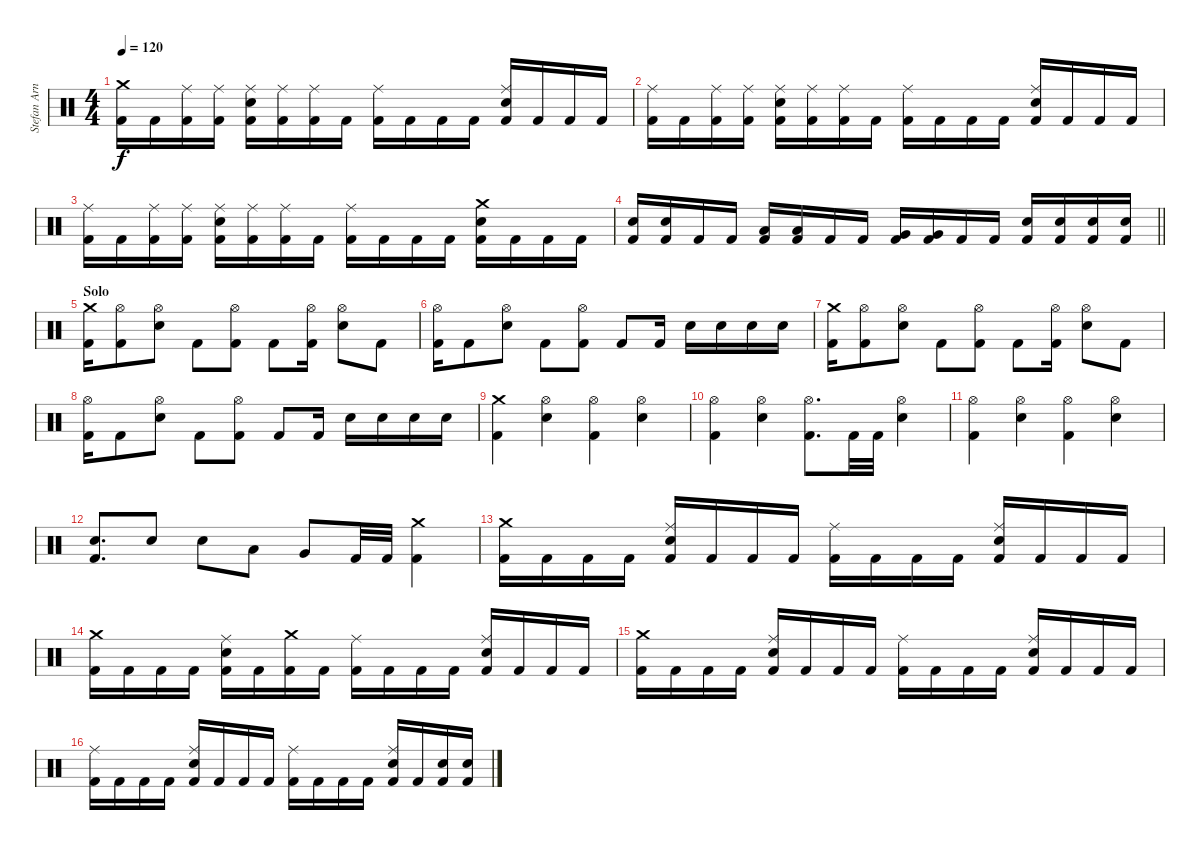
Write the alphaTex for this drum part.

\track ("Stefan Arnold" "Stefan Arn") {instrument percussion}
\staff {score}
\articulation defaults
\ts (4 4)
\tempo 120
\clef neutral
\ks c
("Crash medium (hit)" "Kick (hit) 2").16{dy f} "Kick (hit) 2".16 ("Ride (middle)" "Kick (hit) 2").16 ("Ride (middle)" "Kick (hit) 2").16 ("Ride (middle)" "Electric Snare (hit)" "Kick (hit) 2").16 ("Ride (middle)" "Kick (hit) 2").16 ("Ride (middle)" "Kick (hit) 2").16 "Kick (hit) 2".16 ("Ride (middle)" "Kick (hit) 2").16 "Kick (hit) 2".16 "Kick (hit) 2".16 "Kick (hit) 2".16 ("Ride (middle)" "Electric Snare (hit)" "Kick (hit) 2").16 "Kick (hit) 2".16 "Kick (hit) 2".16 "Kick (hit) 2".16 |
("Ride (middle)" "Kick (hit) 2").16 "Kick (hit) 2".16 ("Ride (middle)" "Kick (hit) 2").16 ("Ride (middle)" "Kick (hit) 2").16 ("Ride (middle)" "Electric Snare (hit)" "Kick (hit) 2").16 ("Ride (middle)" "Kick (hit) 2").16 ("Ride (middle)" "Kick (hit) 2").16 "Kick (hit) 2".16 ("Ride (middle)" "Kick (hit) 2").16 "Kick (hit) 2".16 "Kick (hit) 2".16 "Kick (hit) 2".16 ("Ride (middle)" "Electric Snare (hit)" "Kick (hit) 2").16 "Kick (hit) 2".16 "Kick (hit) 2".16 "Kick (hit) 2".16 |
("Ride (middle)" "Kick (hit) 2").16 "Kick (hit) 2".16 ("Ride (middle)" "Kick (hit) 2").16 ("Ride (middle)" "Kick (hit) 2").16 ("Ride (middle)" "Electric Snare (hit)" "Kick (hit) 2").16 ("Ride (middle)" "Kick (hit) 2").16 ("Ride (middle)" "Kick (hit) 2").16 "Kick (hit) 2".16 ("Ride (middle)" "Kick (hit) 2").16 "Kick (hit) 2".16 "Kick (hit) 2".16 "Kick (hit) 2".16 ("Crash medium (hit)" "Electric Snare (hit)" "Kick (hit) 2").16 "Kick (hit) 2".16 "Kick (hit) 2".16 "Kick (hit) 2".16 |
\barLineRight lightlight
("Electric Snare (hit)" "Kick (hit) 2").16 ("Electric Snare (hit)" "Kick (hit) 2").16 "Kick (hit) 2".16 "Kick (hit) 2".16 ("Low Tom (hit)" "Kick (hit) 2").16 ("Low Tom (hit)" "Kick (hit) 2").16 "Kick (hit) 2".16 "Kick (hit) 2".16 ("Very Low Tom (hit)" "Kick (hit) 2").16 ("Very Low Tom (hit)" "Kick (hit) 2").16 "Kick (hit) 2".16 "Kick (hit) 2".16 ("Electric Snare (hit)" "Kick (hit) 2").16 ("Electric Snare (hit)" "Kick (hit) 2").16 ("Electric Snare (hit)" "Kick (hit) 2").16 ("Electric Snare (hit)" "Kick (hit) 2").16 |
\section ("" "Solo")
("Crash medium (hit)" "Kick (hit) 2").16 ("Hi-Hat (open)" "Kick (hit) 2").8 ("Hi-Hat (open)" "Electric Snare (hit)").8 "Kick (hit) 2".8 ("Hi-Hat (open)" "Kick (hit) 2").8 "Kick (hit) 2".8 ("Hi-Hat (open)" "Kick (hit) 2").16 ("Hi-Hat (open)" "Electric Snare (hit)").8 "Kick (hit) 2".8 |
("Hi-Hat (open)" "Kick (hit) 2").16 "Kick (hit) 2".8 ("Hi-Hat (open)" "Electric Snare (hit)").8 "Kick (hit) 2".8 ("Hi-Hat (open)" "Kick (hit) 2").8 "Kick (hit) 2".8 "Kick (hit) 2".16 "Electric Snare (hit)".16 "Electric Snare (hit)".16 "Electric Snare (hit)".16 "Electric Snare (hit)".16 |
("Crash medium (hit)" "Kick (hit) 2").16 ("Hi-Hat (open)" "Kick (hit) 2").8 ("Hi-Hat (open)" "Electric Snare (hit)").8 "Kick (hit) 2".8 ("Hi-Hat (open)" "Kick (hit) 2").8 "Kick (hit) 2".8 ("Hi-Hat (open)" "Kick (hit) 2").16 ("Hi-Hat (open)" "Electric Snare (hit)").8 "Kick (hit) 2".8 |
("Hi-Hat (open)" "Kick (hit) 2").16 "Kick (hit) 2".8 ("Hi-Hat (open)" "Electric Snare (hit)").8 "Kick (hit) 2".8 ("Hi-Hat (open)" "Kick (hit) 2").8 "Kick (hit) 2".8 "Kick (hit) 2".16 "Electric Snare (hit)".16 "Electric Snare (hit)".16 "Electric Snare (hit)".16 "Electric Snare (hit)".16 |
("Crash medium (hit)" "Kick (hit) 2").4 ("Hi-Hat (open)" "Electric Snare (hit)").4 ("Hi-Hat (open)" "Kick (hit) 2").4 ("Hi-Hat (open)" "Electric Snare (hit)").4 |
("Hi-Hat (open)" "Kick (hit) 2").4 ("Hi-Hat (open)" "Electric Snare (hit)").4 ("Hi-Hat (open)" "Kick (hit) 2").8{d} "Kick (hit) 2".32 "Kick (hit) 2".32 ("Hi-Hat (open)" "Electric Snare (hit)").4 |
("Hi-Hat (open)" "Kick (hit) 2").4 ("Hi-Hat (open)" "Electric Snare (hit)").4 ("Hi-Hat (open)" "Kick (hit) 2").4 ("Hi-Hat (open)" "Electric Snare (hit)").4 |
("Electric Snare (hit)" "Kick (hit) 2").8{d} "Electric Snare (hit)".8 "Electric Snare (hit)".8 "Low Tom (hit)".8 "Very Low Tom (hit)".8 "Kick (hit) 2".32 "Kick (hit) 2".32 ("Crash medium (hit)" "Kick (hit) 2").4 |
("Crash medium (hit)" "Kick (hit) 2").16 "Kick (hit) 2".16 "Kick (hit) 2".16 "Kick (hit) 2".16 ("Ride (middle)" "Electric Snare (hit)" "Kick (hit) 2").16 "Kick (hit) 2".16 "Kick (hit) 2".16 "Kick (hit) 2".16 ("Ride (middle)" "Kick (hit) 2").16 "Kick (hit) 2".16 "Kick (hit) 2".16 "Kick (hit) 2".16 ("Ride (middle)" "Electric Snare (hit)" "Kick (hit) 2").16 "Kick (hit) 2".16 "Kick (hit) 2".16 "Kick (hit) 2".16 |
("Crash medium (hit)" "Kick (hit) 2").16 "Kick (hit) 2".16 "Kick (hit) 2".16 "Kick (hit) 2".16 ("Ride (middle)" "Electric Snare (hit)" "Kick (hit) 2").16 "Kick (hit) 2".16 ("Crash medium (hit)" "Kick (hit) 2").16 "Kick (hit) 2".16 ("Ride (middle)" "Kick (hit) 2").16 "Kick (hit) 2".16 "Kick (hit) 2".16 "Kick (hit) 2".16 ("Ride (middle)" "Electric Snare (hit)" "Kick (hit) 2").16 "Kick (hit) 2".16 "Kick (hit) 2".16 "Kick (hit) 2".16 |
("Crash medium (hit)" "Kick (hit) 2").16 "Kick (hit) 2".16 "Kick (hit) 2".16 "Kick (hit) 2".16 ("Ride (middle)" "Electric Snare (hit)" "Kick (hit) 2").16 "Kick (hit) 2".16 "Kick (hit) 2".16 "Kick (hit) 2".16 ("Ride (middle)" "Kick (hit) 2").16 "Kick (hit) 2".16 "Kick (hit) 2".16 "Kick (hit) 2".16 ("Ride (middle)" "Electric Snare (hit)" "Kick (hit) 2").16 "Kick (hit) 2".16 "Kick (hit) 2".16 "Kick (hit) 2".16 |
("Ride (middle)" "Kick (hit) 2").16 "Kick (hit) 2".16 "Kick (hit) 2".16 "Kick (hit) 2".16 ("Ride (middle)" "Electric Snare (hit)" "Kick (hit) 2").16 "Kick (hit) 2".16 "Kick (hit) 2".16 "Kick (hit) 2".16 ("Ride (middle)" "Kick (hit) 2").16 "Kick (hit) 2".16 "Kick (hit) 2".16 "Kick (hit) 2".16 ("Ride (middle)" "Electric Snare (hit)" "Kick (hit) 2").16 "Kick (hit) 2".16 ("Electric Snare (hit)" "Kick (hit) 2").16 ("Electric Snare (hit)" "Kick (hit) 2").16
